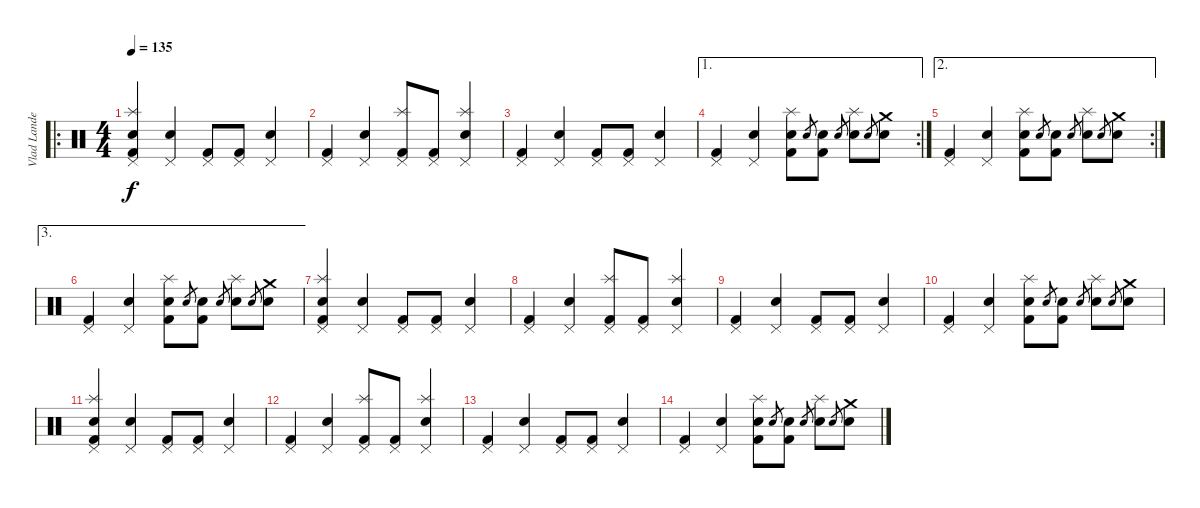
\track ("Vlad Landeros" "Vlad Lande") {instrument percussion}
\staff {score}
\articulation defaults
\ro
\ts (4 4)
\tempo 135
\clef neutral
\ks c
("Pedal Hi-Hat (hit)" "Splash (hit)" "Snare (hit) 2" "Kick (hit) 2").4{dy f} ("Pedal Hi-Hat (hit)" "Snare (hit) 2").4 ("Pedal Hi-Hat (hit)" "Kick (hit) 2").8 ("Pedal Hi-Hat (hit)" "Kick (hit) 2").8 ("Pedal Hi-Hat (hit)" "Snare (hit) 2").4 |
("Pedal Hi-Hat (hit)" "Kick (hit) 2").4 ("Pedal Hi-Hat (hit)" "Snare (hit) 2").4 ("Pedal Hi-Hat (hit)" "Splash (hit)" "Kick (hit) 2").8 ("Pedal Hi-Hat (hit)" "Kick (hit) 2").8 ("Pedal Hi-Hat (hit)" "Splash (hit)" "Snare (hit) 2").4 |
("Pedal Hi-Hat (hit)" "Kick (hit) 2").4 ("Pedal Hi-Hat (hit)" "Snare (hit) 2").4 ("Pedal Hi-Hat (hit)" "Kick (hit) 2").8 ("Pedal Hi-Hat (hit)" "Kick (hit) 2").8 ("Pedal Hi-Hat (hit)" "Snare (hit) 2").4 |
\ae 1
\rc 2
("Pedal Hi-Hat (hit)" "Kick (hit) 2").4 ("Pedal Hi-Hat (hit)" "Snare (hit) 2").4 ("Splash (hit)" "Snare (hit) 2" "Kick (hit) 2").8 "Snare (hit) 2".8{gr} ("Snare (hit) 2" "Kick (hit) 2").8 "Snare (hit) 2".8{gr} ("Splash (hit)" "Snare (hit) 2").8 "Snare (hit) 2".8{gr} ("Crash medium (hit)" "Snare (hit) 2").8 |
\ae 2
\rc 2
("Pedal Hi-Hat (hit)" "Kick (hit) 2").4 ("Pedal Hi-Hat (hit)" "Snare (hit) 2").4 ("Splash (hit)" "Snare (hit) 2" "Kick (hit) 2").8 "Snare (hit) 2".8{gr} ("Snare (hit) 2" "Kick (hit) 2").8 "Snare (hit) 2".8{gr} ("Splash (hit)" "Snare (hit) 2").8 "Snare (hit) 2".8{gr} ("Crash medium (hit)" "Snare (hit) 2").8 |
\ae 3
("Pedal Hi-Hat (hit)" "Kick (hit) 2").4 ("Pedal Hi-Hat (hit)" "Snare (hit) 2").4 ("Splash (hit)" "Snare (hit) 2" "Kick (hit) 2").8 "Snare (hit) 2".8{gr} ("Snare (hit) 2" "Kick (hit) 2").8 "Snare (hit) 2".8{gr} ("Splash (hit)" "Snare (hit) 2").8 "Snare (hit) 2".8{gr} ("Crash medium (hit)" "Snare (hit) 2").8 |
("Pedal Hi-Hat (hit)" "Splash (hit)" "Snare (hit) 2" "Kick (hit) 2").4 ("Pedal Hi-Hat (hit)" "Snare (hit) 2").4 ("Pedal Hi-Hat (hit)" "Kick (hit) 2").8 ("Pedal Hi-Hat (hit)" "Kick (hit) 2").8 ("Pedal Hi-Hat (hit)" "Snare (hit) 2").4 |
("Pedal Hi-Hat (hit)" "Kick (hit) 2").4 ("Pedal Hi-Hat (hit)" "Snare (hit) 2").4 ("Pedal Hi-Hat (hit)" "Splash (hit)" "Kick (hit) 2").8 ("Pedal Hi-Hat (hit)" "Kick (hit) 2").8 ("Pedal Hi-Hat (hit)" "Splash (hit)" "Snare (hit) 2").4 |
("Pedal Hi-Hat (hit)" "Kick (hit) 2").4 ("Pedal Hi-Hat (hit)" "Snare (hit) 2").4 ("Pedal Hi-Hat (hit)" "Kick (hit) 2").8 ("Pedal Hi-Hat (hit)" "Kick (hit) 2").8 ("Pedal Hi-Hat (hit)" "Snare (hit) 2").4 |
("Pedal Hi-Hat (hit)" "Kick (hit) 2").4 ("Pedal Hi-Hat (hit)" "Snare (hit) 2").4 ("Splash (hit)" "Snare (hit) 2" "Kick (hit) 2").8 "Snare (hit) 2".8{gr} ("Snare (hit) 2" "Kick (hit) 2").8 "Snare (hit) 2".8{gr} ("Splash (hit)" "Snare (hit) 2").8 "Snare (hit) 2".8{gr} ("Crash medium (hit)" "Snare (hit) 2").8 |
("Pedal Hi-Hat (hit)" "Splash (hit)" "Snare (hit) 2" "Kick (hit) 2").4 ("Pedal Hi-Hat (hit)" "Snare (hit) 2").4 ("Pedal Hi-Hat (hit)" "Kick (hit) 2").8 ("Pedal Hi-Hat (hit)" "Kick (hit) 2").8 ("Pedal Hi-Hat (hit)" "Snare (hit) 2").4 |
("Pedal Hi-Hat (hit)" "Kick (hit) 2").4 ("Pedal Hi-Hat (hit)" "Snare (hit) 2").4 ("Pedal Hi-Hat (hit)" "Splash (hit)" "Kick (hit) 2").8 ("Pedal Hi-Hat (hit)" "Kick (hit) 2").8 ("Pedal Hi-Hat (hit)" "Splash (hit)" "Snare (hit) 2").4 |
("Pedal Hi-Hat (hit)" "Kick (hit) 2").4 ("Pedal Hi-Hat (hit)" "Snare (hit) 2").4 ("Pedal Hi-Hat (hit)" "Kick (hit) 2").8 ("Pedal Hi-Hat (hit)" "Kick (hit) 2").8 ("Pedal Hi-Hat (hit)" "Snare (hit) 2").4 |
("Pedal Hi-Hat (hit)" "Kick (hit) 2").4 ("Pedal Hi-Hat (hit)" "Snare (hit) 2").4 ("Splash (hit)" "Snare (hit) 2" "Kick (hit) 2").8 "Snare (hit) 2".8{gr} ("Snare (hit) 2" "Kick (hit) 2").8 "Snare (hit) 2".8{gr} ("Splash (hit)" "Snare (hit) 2").8 "Snare (hit) 2".8{gr} ("Crash medium (hit)" "Snare (hit) 2").8
